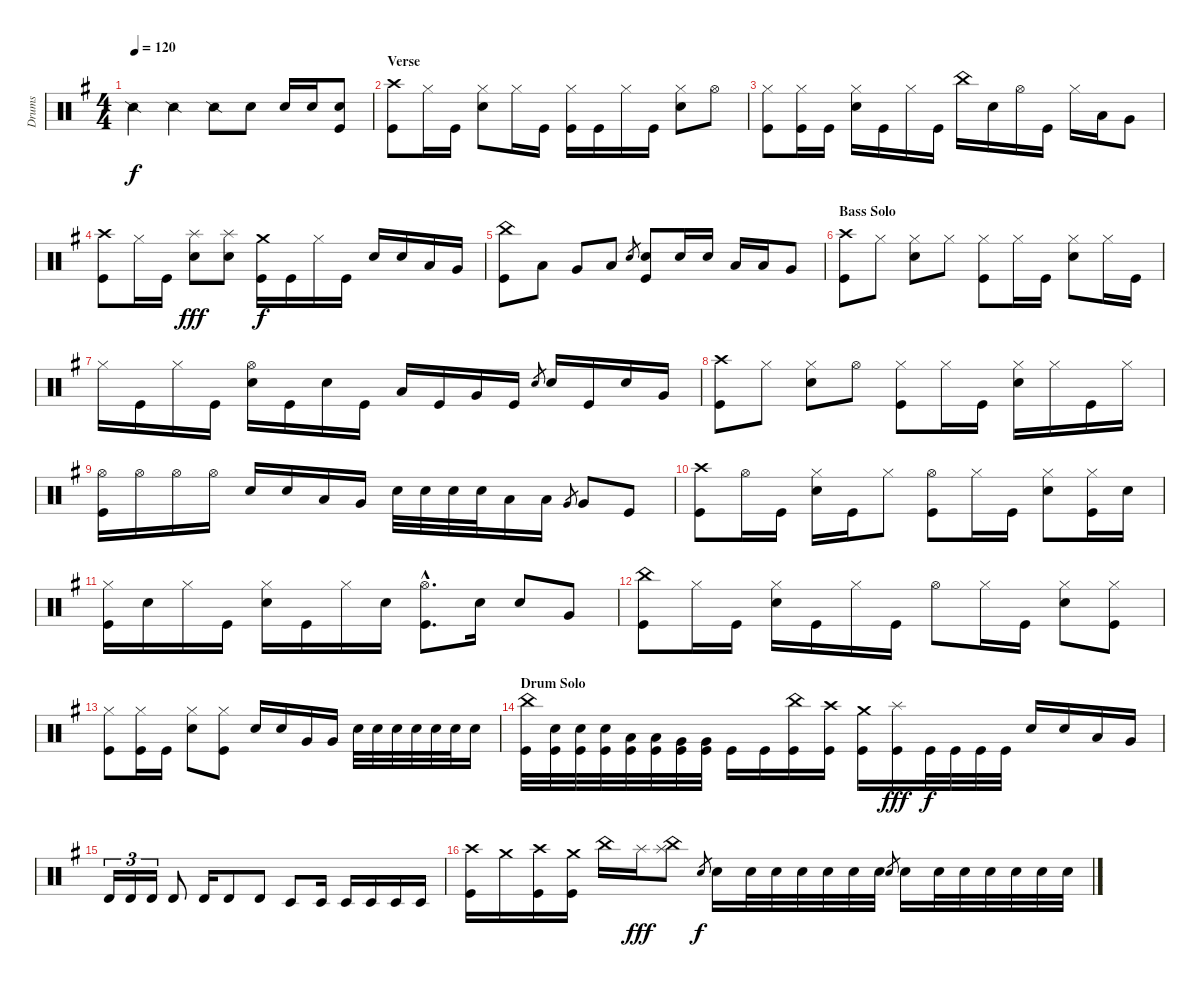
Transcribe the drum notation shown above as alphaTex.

\track ("Drums" "Drums") {instrument percussion}
\staff {score}
\articulation defaults
\ts (4 4)
\tempo 120
\clef neutral
\ks eminor "Snare (side stick) 2".4{dy f} "Snare (side stick) 2".4 "Snare (side stick) 2".8 "Snare (hit) 2".8 "Snare (hit) 2".16 "Snare (hit) 2".16
("Snare (hit) 2" "Kick (hit)").8 |
\section ("" "Verse")
("Crash high (hit)" "Kick (hit)").8 "Hi-Hat (closed)".16 "Kick (hit)".16 ("Hi-Hat (closed)" "Snare (hit) 2").8 "Hi-Hat (closed)".16 "Kick (hit)".16 ("Hi-Hat (closed)" "Kick (hit)").16 "Kick (hit)".16 "Hi-Hat (closed)".16 "Kick (hit)".16 ("Hi-Hat (closed)" "Snare (hit) 2").8 "Hi-Hat (open)".8 |
("Hi-Hat (closed)" "Kick (hit)").8 ("Hi-Hat (closed)" "Kick (hit)").16 "Kick (hit)".16 ("Hi-Hat (closed)" "Snare (hit) 2").16 "Kick (hit)".16 "Hi-Hat (closed)".16 "Kick (hit)".16 "China (hit)".16 "Snare (hit) 2".16 "Hi-Hat (open)".16 "Kick (hit)".16 "Hi-Hat (closed)".16 "Low Tom (hit)".16 "Very Low Tom (hit)".8 |
("Crash high (hit)" "Kick (hit)").8 "Hi-Hat (closed)".16 "Kick (hit)".16 ("Splash (hit)" "Snare (hit) 2").8{dy fff} ("Splash (hit)" "Snare (hit) 2").8 ("Crash medium (hit)" "Kick (hit)").16{dy f} "Kick (hit)".16 "Hi-Hat (closed)".16 "Kick (hit)".16 "Snare (hit) 2".16 "Snare (hit) 2".16 "Low Tom (hit)".16 "Very Low Tom (hit)".16 |
("China (hit)" "Kick (hit)").8 "Low Tom (hit)".8 "Very Low Tom (hit)".8 "Low Floor Tom (hit)".8 "Snare (hit) 2".8{gr} ("Snare (hit) 2" "Kick (hit)").8 "Snare (hit) 2".16 "Snare (hit) 2".16 "Low Tom (hit)".16 "Low Tom (hit)".16 "Very Low Tom (hit)".8 |
\section ("" "Bass Solo")
("Crash high (hit)" "Kick (hit)").8 "Hi-Hat (closed)".8 ("Hi-Hat (closed)" "Snare (hit) 2").8 "Hi-Hat (closed)".8 ("Hi-Hat (closed)" "Kick (hit)").8 "Hi-Hat (closed)".16 "Kick (hit)".16 ("Hi-Hat (closed)" "Snare (hit) 2").8 "Hi-Hat (closed)".16 "Kick (hit)".16 |
"Hi-Hat (closed)".16 "Kick (hit)".16 "Hi-Hat (closed)".16 "Kick (hit)".16 ("Hi-Hat (open)" "Snare (hit) 2").16 "Kick (hit)".16 "Snare (hit) 2".16 "Kick (hit)".16 "Low Tom (hit)".16 "Kick (hit)".16 "Very Low Tom (hit)".16 "Kick (hit)".16 "Snare (hit) 2".8{gr} "Snare (hit) 2".16 "Kick (hit)".16 "Snare (hit) 2".16 "Very Low Tom (hit)".16 |
("Crash high (hit)" "Kick (hit)").8 "Hi-Hat (closed)".8 ("Hi-Hat (closed)" "Snare (hit) 2").8 "Hi-Hat (open)".8 ("Hi-Hat (closed)" "Kick (hit)").8 "Hi-Hat (closed)".16 "Kick (hit)".16 ("Hi-Hat (closed)" "Snare (hit) 2").16 "Hi-Hat (closed)".16 "Kick (hit)".16 "Hi-Hat (closed)".16 |
("Hi-Hat (open)" "Kick (hit)").16 "Hi-Hat (open)".16 "Hi-Hat (open)".16 "Hi-Hat (open)".16 "Snare (hit) 2".16 "Snare (hit) 2".16 "Low Tom (hit)".16 "Very Low Tom (hit)".16 "Snare (hit) 2".32 "Snare (hit) 2".32 "Snare (hit) 2".32 "Snare (hit) 2".32 "Low Tom (hit)".16 "Low Tom (hit)".16 "Very Low Tom (hit)".8{gr} "Very Low Tom (hit)".8 "Kick (hit)".8 |
("Crash high (hit)" "Kick (hit)").8 "Hi-Hat (open)".16 "Kick (hit)".16 ("Hi-Hat (closed)" "Snare (hit) 2").16 "Kick (hit)".16 "Hi-Hat (closed)".8 ("Hi-Hat (open)" "Kick (hit)").8 "Hi-Hat (closed)".16 "Kick (hit)".16 ("Hi-Hat (closed)" "Snare (hit) 2").8 ("Hi-Hat (closed)" "Kick (hit)").16 "Snare (hit) 2".16 |
("Hi-Hat (closed)" "Kick (hit)").16 "Snare (hit) 2".16 "Hi-Hat (closed)".16 "Kick (hit)".16 ("Hi-Hat (closed)" "Snare (hit) 2").16 "Kick (hit)".16 "Hi-Hat (closed)".16 "Snare (hit) 2".16 ("Hi-Hat (open)"{hac} "Kick (hit)"{hac}).8{d} "Snare (hit) 2".16 "Snare (hit) 2".8 "Very Low Tom (hit)".8 |
("China (hit)" "Kick (hit)").8 "Hi-Hat (closed)".16 "Kick (hit)".16 ("Hi-Hat (closed)" "Snare (hit) 2").16 "Kick (hit)".16 "Hi-Hat (closed)".16 "Kick (hit)".16 "Hi-Hat (open)".8 "Hi-Hat (closed)".16 "Kick (hit)".16 ("Hi-Hat (closed)" "Snare (hit) 2").8 ("Hi-Hat (closed)" "Kick (hit)").8 |
("Hi-Hat (closed)" "Kick (hit)").8 ("Hi-Hat (closed)" "Kick (hit)").16 "Kick (hit)".16 ("Hi-Hat (closed)" "Snare (hit) 2").8 ("Hi-Hat (closed)" "Kick (hit)").8 "Snare (hit) 2".16 "Snare (hit) 2".16 "Very Low Tom (hit)".16 "Very Low Tom (hit)".16 "Snare (hit) 2".32 "Snare (hit) 2".32 "Snare (hit) 2".32 "Snare (hit) 2".32 "Snare (hit) 2".32 "Snare (hit) 2".32 "Snare (hit) 2".16 |
\section ("" "Drum Solo")
("China (hit)" "Kick (hit)").32 ("Snare (hit) 2" "Kick (hit)").32 ("Snare (hit) 2" "Kick (hit)").32 ("Snare (hit) 2" "Kick (hit)").32 ("Low Tom (hit)" "Kick (hit)").32 ("Low Tom (hit)" "Kick (hit)").32 ("Very Low Tom (hit)" "Kick (hit)").32 ("Very Low Tom (hit)" "Kick (hit)").32 "Kick (hit)".16 "Kick (hit)".16 ("China (hit)" "Kick (hit)").16 ("Crash high (hit)" "Kick (hit)").16 ("Crash medium (hit)" "Kick (hit)").16 ("Splash (hit)" "Kick (hit)").16{dy fff} "Kick (hit)".32{dy f} "Kick (hit)".32 "Kick (hit)".32 "Kick (hit)".32 "Snare (hit) 2".16 "Snare (hit) 2".16 "Low Tom (hit)".16 "Very Low Tom (hit)".16 |
"Timbale high (hit)".16{tu (3 2)} "Timbale high (hit)".16{tu (3 2)} "Timbale high (hit)".16{tu (3 2)} "Timbale high (hit)".8 "Timbale high (hit)".16 "Timbale high (hit)".8 "Timbale high (hit)".8 "Timbale low (hit)".8 "Timbale low (hit)".16 "Timbale low (hit)".16 "Timbale low (hit)".16 "Timbale low (hit)".16 "Timbale low (hit)".16 |
("Crash high (hit)" "Kick (hit)").16 "Crash medium (hit)".16 ("Crash high (hit)" "Kick (hit)").16 ("Crash medium (hit)" "Kick (hit)").16 "China (hit)".16 "Splash (hit)".16{dy fff} ("China (hit)" "Splash (hit)").8 "Snare (hit) 2".8{gr dy f} "Snare (hit) 2".16 "Snare (hit) 2".32 "Snare (hit) 2".32 "Snare (hit) 2".32 "Snare (hit) 2".32 "Snare (hit) 2".32 "Snare (hit) 2".32 "Snare (hit) 2".8{gr} "Snare (hit) 2".16 "Snare (hit) 2".32 "Snare (hit) 2".32 "Snare (hit) 2".32 "Snare (hit) 2".32 "Snare (hit) 2".32 "Snare (hit) 2".32
